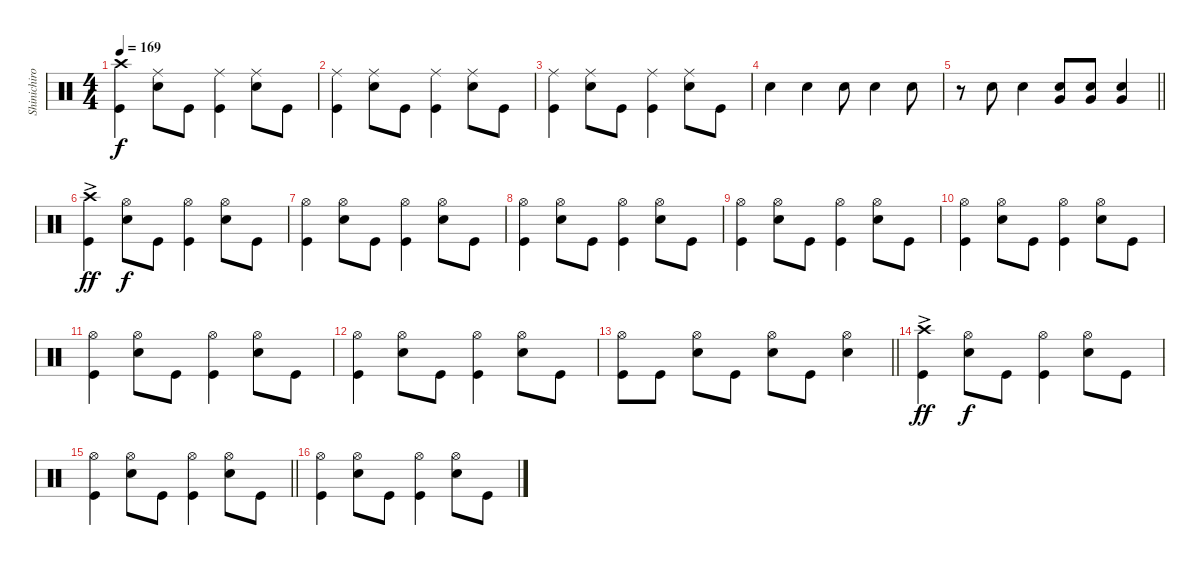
\track ("Shinichiro Sato drums" "Shinichiro") {instrument percussion}
\staff {score}
\articulation defaults
\ts (4 4)
\tempo 169
\clef neutral
\ks c
("Crash high (hit)" "Kick (hit)").4{dy f} ("Ride (middle)" "Snare (hit) 2").8 "Kick (hit)".8 ("Ride (middle)" "Kick (hit)").4 ("Ride (middle)" "Snare (hit) 2").8 "Kick (hit)".8 |
("Ride (middle)" "Kick (hit)").4 ("Ride (middle)" "Snare (hit) 2").8 "Kick (hit)".8 ("Ride (middle)" "Kick (hit)").4 ("Ride (middle)" "Snare (hit) 2").8 "Kick (hit)".8 |
("Ride (middle)" "Kick (hit)").4 ("Ride (middle)" "Snare (hit) 2").8 "Kick (hit)".8 ("Ride (middle)" "Kick (hit)").4 ("Ride (middle)" "Snare (hit) 2").8 "Kick (hit)".8 |
"Snare (hit) 2".4 "Snare (hit) 2".4 "Snare (hit) 2".8 "Snare (hit) 2".4 "Snare (hit) 2".8 |
\barLineRight lightlight
r.8 "Snare (hit) 2".8 "Snare (hit) 2".4 ("Snare (hit) 2" "Very Low Tom (hit)").8 ("Snare (hit) 2" "Very Low Tom (hit)").8 ("Snare (hit) 2" "Very Low Tom (hit)").4 |
("Crash high (hit)"{ac} "Kick (hit)").4{dy ff} ("Hi-Hat (open)" "Snare (hit) 2").8{dy f} "Kick (hit)".8 ("Hi-Hat (open)" "Kick (hit)").4 ("Hi-Hat (open)" "Snare (hit) 2").8 "Kick (hit)".8 |
("Hi-Hat (open)" "Kick (hit)").4 ("Hi-Hat (open)" "Snare (hit) 2").8 "Kick (hit)".8 ("Hi-Hat (open)" "Kick (hit)").4 ("Hi-Hat (open)" "Snare (hit) 2").8 "Kick (hit)".8 |
("Hi-Hat (open)" "Kick (hit)").4 ("Hi-Hat (open)" "Snare (hit) 2").8 "Kick (hit)".8 ("Hi-Hat (open)" "Kick (hit)").4 ("Hi-Hat (open)" "Snare (hit) 2").8 "Kick (hit)".8 |
("Hi-Hat (open)" "Kick (hit)").4 ("Hi-Hat (open)" "Snare (hit) 2").8 "Kick (hit)".8 ("Hi-Hat (open)" "Kick (hit)").4 ("Hi-Hat (open)" "Snare (hit) 2").8 "Kick (hit)".8 |
("Hi-Hat (open)" "Kick (hit)").4 ("Hi-Hat (open)" "Snare (hit) 2").8 "Kick (hit)".8 ("Hi-Hat (open)" "Kick (hit)").4 ("Hi-Hat (open)" "Snare (hit) 2").8 "Kick (hit)".8 |
("Hi-Hat (open)" "Kick (hit)").4 ("Hi-Hat (open)" "Snare (hit) 2").8 "Kick (hit)".8 ("Hi-Hat (open)" "Kick (hit)").4 ("Hi-Hat (open)" "Snare (hit) 2").8 "Kick (hit)".8 |
("Hi-Hat (open)" "Kick (hit)").4 ("Hi-Hat (open)" "Snare (hit) 2").8 "Kick (hit)".8 ("Hi-Hat (open)" "Kick (hit)").4 ("Hi-Hat (open)" "Snare (hit) 2").8 "Kick (hit)".8 |
\barLineRight lightlight
("Hi-Hat (open)" "Kick (hit)").8 "Kick (hit)".8 ("Hi-Hat (open)" "Snare (hit) 2").8 "Kick (hit)".8 ("Hi-Hat (open)" "Snare (hit) 2").8 "Kick (hit)".8 ("Hi-Hat (open)" "Snare (hit) 2").4 |
("Crash high (hit)"{ac} "Kick (hit)").4{dy ff} ("Hi-Hat (open)" "Snare (hit) 2").8{dy f} "Kick (hit)".8 ("Hi-Hat (open)" "Kick (hit)").4 ("Hi-Hat (open)" "Snare (hit) 2").8 "Kick (hit)".8 |
\barLineRight lightlight
("Hi-Hat (open)" "Kick (hit)").4 ("Hi-Hat (open)" "Snare (hit) 2").8 "Kick (hit)".8 ("Hi-Hat (open)" "Kick (hit)").4 ("Hi-Hat (open)" "Snare (hit) 2").8 "Kick (hit)".8 |
("Hi-Hat (open)" "Kick (hit)").4 ("Hi-Hat (open)" "Snare (hit) 2").8 "Kick (hit)".8 ("Hi-Hat (open)" "Kick (hit)").4 ("Hi-Hat (open)" "Snare (hit) 2").8 "Kick (hit)".8
